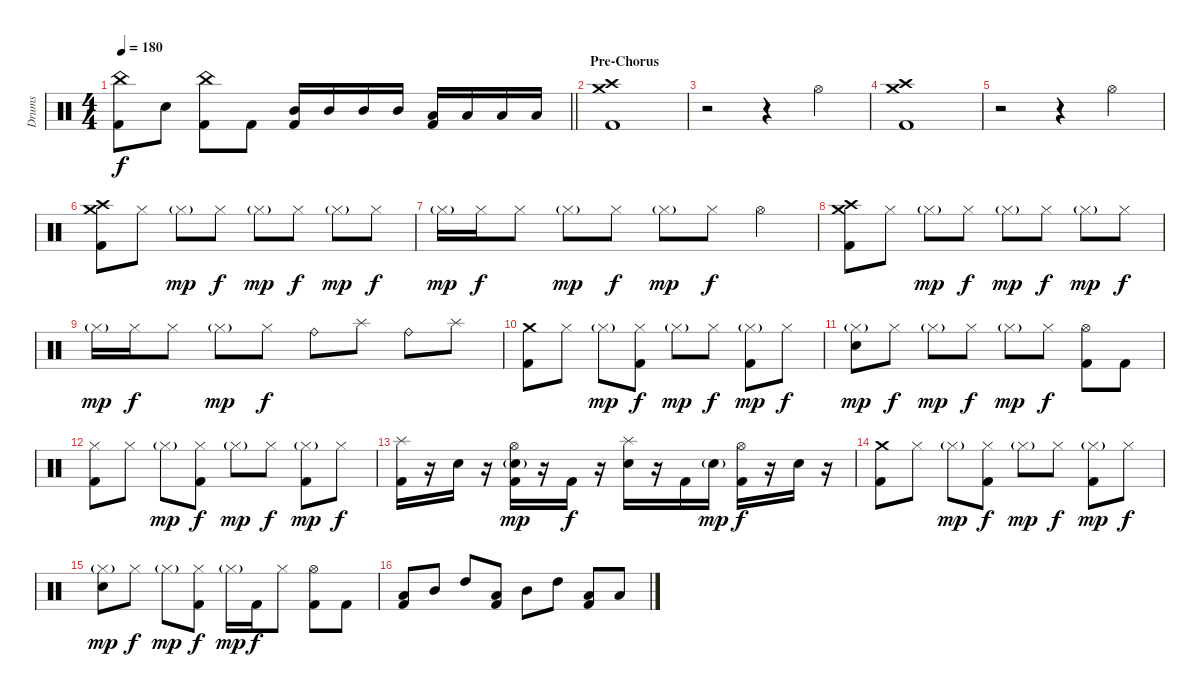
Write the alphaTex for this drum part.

\track ("Drums" "Drums") {instrument percussion}
\staff {score}
\articulation defaults
\ts (4 4)
\tempo 180
\clef neutral
\barLineRight lightlight
\ks c
("China (hit)" "Kick (hit) 2").8{dy f} "Snare (hit) 2".8 ("China (hit)" "Kick (hit) 2").8 "Kick (hit) 2".8 ("Mid Tom (hit)" "Kick (hit) 2").16 "Mid Tom (hit)".16 "Mid Tom (hit)".16 "Mid Tom (hit)".16 ("Low Tom (hit)" "Kick (hit) 2").16 "Low Tom (hit)".16 "Low Tom (hit)".16 "Low Tom (hit)".16 |
\section ("" "Pre-Chorus")
("Crash medium (hit)" "Crash high (hit)" "Kick (hit) 2").1 |
r.2 r.4 "Hi-Hat (open)".4 |
("Crash medium (hit)" "Crash high (hit)" "Kick (hit) 2").1 |
r.2 r.4 "Hi-Hat (open)".4 |
("Crash medium (hit)" "Crash high (hit)" "Kick (hit) 2").8 "Hi-Hat (closed)".8 "Hi-Hat (closed)"{g}.8{dy mp} "Hi-Hat (closed)".8{dy f} "Hi-Hat (closed)"{g}.8{dy mp} "Hi-Hat (closed)".8{dy f} "Hi-Hat (closed)"{g}.8{dy mp} "Hi-Hat (closed)".8{dy f} |
"Hi-Hat (closed)"{g}.16{dy mp} "Hi-Hat (closed)".16{dy f} "Hi-Hat (closed)".8 "Hi-Hat (closed)"{g}.8{dy mp} "Hi-Hat (closed)".8{dy f} "Hi-Hat (closed)"{g}.8{dy mp} "Hi-Hat (closed)".8{dy f} "Hi-Hat (open)".4 |
("Crash medium (hit)" "Crash high (hit)" "Kick (hit) 2").8 "Hi-Hat (closed)".8 "Hi-Hat (closed)"{g}.8{dy mp} "Hi-Hat (closed)".8{dy f} "Hi-Hat (closed)"{g}.8{dy mp} "Hi-Hat (closed)".8{dy f} "Hi-Hat (closed)"{g}.8{dy mp} "Hi-Hat (closed)".8{dy f} |
"Hi-Hat (closed)"{g}.16{dy mp} "Hi-Hat (closed)".16{dy f} "Hi-Hat (closed)".8 "Hi-Hat (closed)"{g}.8{dy mp} "Hi-Hat (closed)".8{dy f} "Ride (bell)".8 "Splash (hit)".8 "Ride (bell)".8 "Splash (hit)".8 |
("Crash medium (hit)" "Kick (hit) 2").8 "Hi-Hat (closed)".8 "Hi-Hat (closed)"{g}.8{dy mp} ("Hi-Hat (closed)" "Kick (hit) 2").8{dy f} "Hi-Hat (closed)"{g}.8{dy mp} "Hi-Hat (closed)".8{dy f} ("Hi-Hat (closed)"{g} "Kick (hit) 2").8{dy mp} "Hi-Hat (closed)".8{dy f} |
("Hi-Hat (closed)"{g} "Snare (hit) 2").8{dy mp} "Hi-Hat (closed)".8{dy f} "Hi-Hat (closed)"{g}.8{dy mp} "Hi-Hat (closed)".8{dy f} "Hi-Hat (closed)"{g}.8{dy mp} "Hi-Hat (closed)".8{dy f} ("Hi-Hat (open)" "Kick (hit) 2").8 "Kick (hit) 2".8 |
("Hi-Hat (closed)" "Kick (hit) 2").8 "Hi-Hat (closed)".8 "Hi-Hat (closed)"{g}.8{dy mp} ("Hi-Hat (closed)" "Kick (hit) 2").8{dy f} "Hi-Hat (closed)"{g}.8{dy mp} "Hi-Hat (closed)".8{dy f} ("Hi-Hat (closed)"{g} "Kick (hit) 2").8{dy mp} "Hi-Hat (closed)".8{dy f} |
("Splash (hit)" "Kick (hit) 2").16 r.16 "Snare (hit) 2".16 r.16 ("Hi-Hat (open)" "Snare (hit) 2"{g} "Kick (hit) 2").16{dy mp} r.16 "Kick (hit) 2".16{dy f} r.16 ("Splash (hit)" "Snare (hit) 2").16 r.16 "Kick (hit) 2".16 "Snare (hit) 2"{g}.16{dy mp} ("Hi-Hat (open)" "Kick (hit) 2").16{dy f} r.16 "Snare (hit) 2".16 r.16 |
("Crash medium (hit)" "Kick (hit) 2").8 "Hi-Hat (closed)".8 "Hi-Hat (closed)"{g}.8{dy mp} ("Hi-Hat (closed)" "Kick (hit) 2").8{dy f} "Hi-Hat (closed)"{g}.8{dy mp} "Hi-Hat (closed)".8{dy f} ("Hi-Hat (closed)"{g} "Kick (hit) 2").8{dy mp} "Hi-Hat (closed)".8{dy f} |
("Hi-Hat (closed)"{g} "Snare (hit) 2").8{dy mp} "Hi-Hat (closed)".8{dy f} "Hi-Hat (closed)"{g}.8{dy mp} ("Hi-Hat (closed)" "Kick (hit) 2").8{dy f} "Hi-Hat (closed)"{g}.16{dy mp} "Kick (hit) 2".16{dy f} "Hi-Hat (closed)".8 ("Hi-Hat (open)" "Kick (hit) 2").8 "Kick (hit) 2".8 |
("Low Tom (hit)" "Kick (hit) 2").8 "Mid Tom (hit)".8 "High Tom (hit)".8 ("Low Tom (hit)" "Kick (hit) 2").8 "Mid Tom (hit)".8 "High Tom (hit)".8 ("Low Tom (hit)" "Kick (hit) 2").8 "Low Tom (hit)".8
